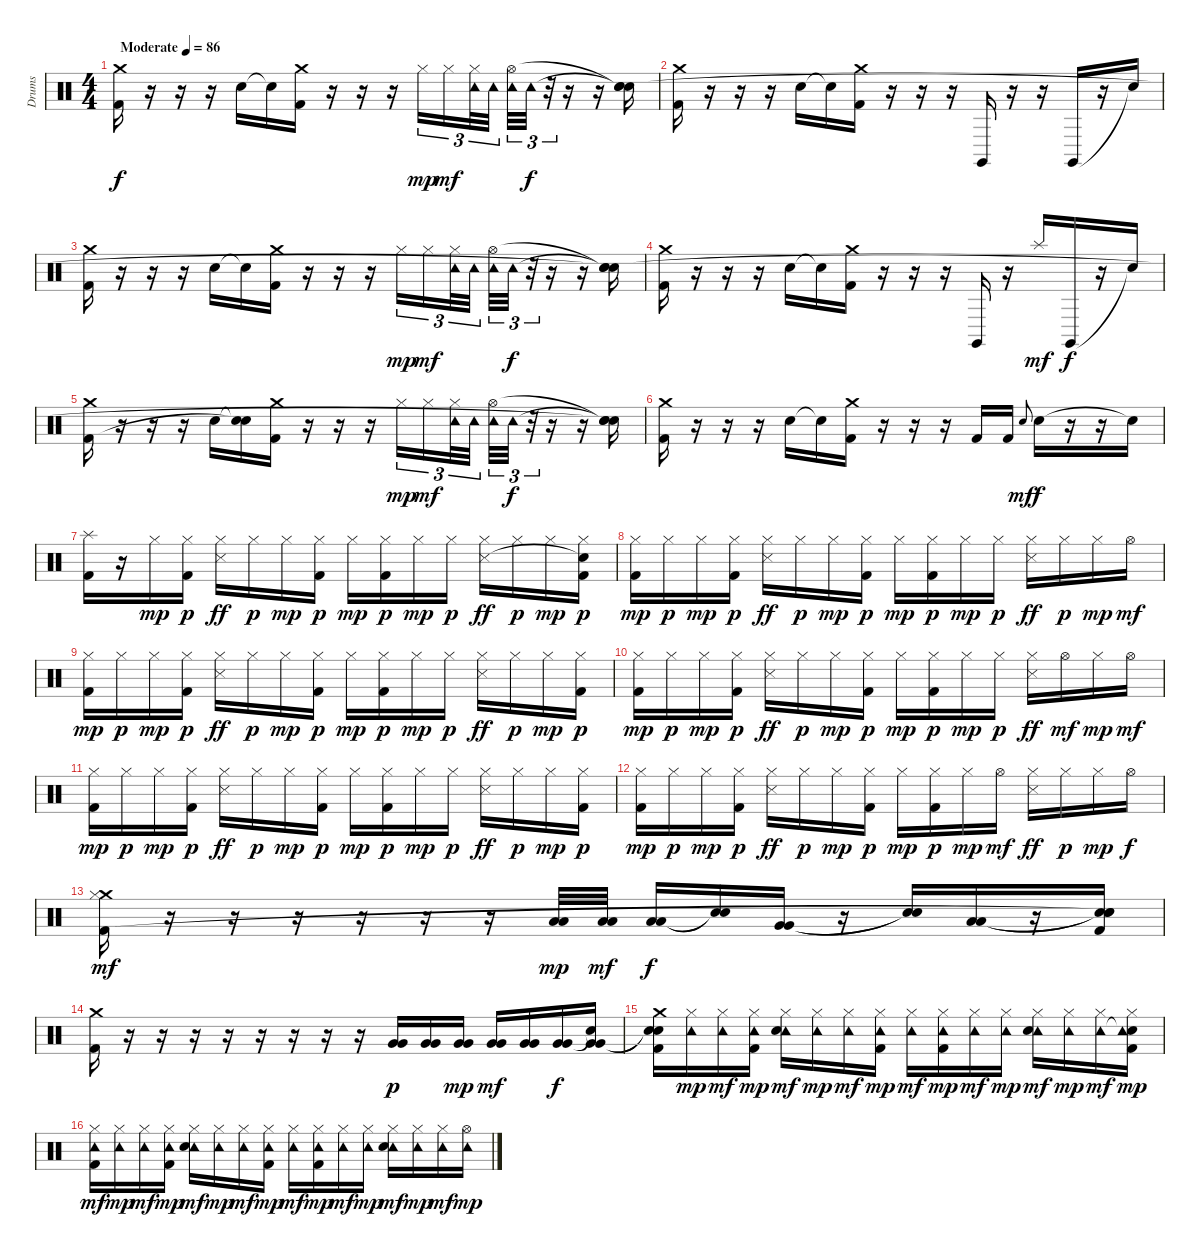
\track ("Drums" "Drums") {instrument percussion}
\staff {score}
\articulation defaults
\ts (4 4)
\tempo (86 "Moderate")
\clef neutral
\ks c
("Crash medium (hit)" "Kick (hit) 2").16{dy f} r.16 r.16 r.16 "Electric Snare (hit)".16 "Snare (hit)"{t}.16 ("Crash medium (hit)" "Kick (hit) 2").16 r.16 r.16 r.16 "Hi-Hat (closed)".16{tu (3 2) dy mp} "Hi-Hat (closed)".16{tu (3 2) dy mf} ("Tambourine (hit)" "Hi-Hat (closed)").32{tu (3 2)} "Tambourine (hit)".32{tu (3 2)} ("Tambourine (hit)" "Hi-Hat (open)").32{tu (3 2)} "Tambourine (hit)".32{tu (3 2) dy f} r.32{tu (3 2)} r.16 r.16 ("Snare (hit)"{t} "Snare (hit)"{t} "Snare (hit)").16 |
("Crash medium (hit)" "Kick (hit) 2").16 r.16 r.16 r.16 "Electric Snare (hit)".16 "Snare (hit)"{t}.16 ("Crash medium (hit)" "Kick (hit) 2").16 r.16 r.16 r.16 "Claves (hit)".16 r.16 r.16 "Claves (hit)".16 r.16 "Snare (hit)"{t}.16 |
("Crash medium (hit)" "Kick (hit) 2").16 r.16 r.16 r.16 "Electric Snare (hit)".16 "Snare (hit)"{t}.16 ("Crash medium (hit)" "Kick (hit) 2").16 r.16 r.16 r.16 "Hi-Hat (closed)".16{tu (3 2) dy mp} "Hi-Hat (closed)".16{tu (3 2) dy mf} ("Tambourine (hit)" "Hi-Hat (closed)").32{tu (3 2)} "Tambourine (hit)".32{tu (3 2)} ("Tambourine (hit)" "Hi-Hat (open)").32{tu (3 2)} "Tambourine (hit)".32{tu (3 2) dy f} r.32{tu (3 2)} r.16 r.16 ("Snare (hit)"{t} "Snare (hit)"{t} "Snare (hit)"{t}).16 |
("Crash medium (hit)" "Kick (hit) 2").16 r.16 r.16 r.16 "Electric Snare (hit)".16 "Snare (hit)"{t}.16 ("Crash medium (hit)" "Kick (hit) 2").16 r.16 r.16 r.16 "Claves (hit)".16 r.16 "Splash (hit)".16{dy mf} "Claves (hit)".16{dy f} r.16 "Snare (hit)"{t}.16 |
("Crash medium (hit)" "Kick (hit) 2").16 r.16 r.16 r.16 "Electric Snare (hit)".16 ("Snare (hit)"{t} "Snare (hit)"{t}).16 ("Crash medium (hit)" "Kick (hit) 2").16 r.16 r.16 r.16 "Hi-Hat (closed)".16{tu (3 2) dy mp} "Hi-Hat (closed)".16{tu (3 2) dy mf} ("Tambourine (hit)" "Hi-Hat (closed)").32{tu (3 2)} "Tambourine (hit)".32{tu (3 2)} ("Tambourine (hit)" "Hi-Hat (open)").32{tu (3 2)} "Tambourine (hit)".32{tu (3 2) dy f} r.32{tu (3 2)} r.16 r.16 ("Snare (hit)"{t} "Snare (hit)"{t} "Snare (hit)"{t}).16 |
("Crash medium (hit)" "Kick (hit) 2").16 r.16 r.16 r.16 "Electric Snare (hit)".16 "Snare (hit)"{t}.16 ("Crash medium (hit)" "Kick (hit) 2").16 r.16 r.16 r.16 "Kick (hit) 2".16 "Kick (hit) 2".16 "Electric Snare (hit)".8{gr onbeat dy mf} "Electric Snare (hit)".16{dy f} r.16 r.16 "Snare (hit)"{t}.16 |
("Splash (hit)" "Kick (hit) 2").16 r.16 "Hi-Hat (closed)".16{dy mp} ("Hi-Hat (closed)" "Kick (hit) 2").16{dy p} ("Hi-Hat (closed)" "Snare (side stick) 3").16{dy ff} "Hi-Hat (closed)".16{dy p} "Hi-Hat (closed)".16{dy mp} ("Hi-Hat (closed)" "Kick (hit) 2").16{dy p} "Hi-Hat (closed)".16{dy mp} ("Hi-Hat (closed)" "Kick (hit) 2").16{dy p} "Hi-Hat (closed)".16{dy mp} "Hi-Hat (closed)".16{dy p} ("Hi-Hat (closed)" "Snare (side stick) 3").16{dy ff} "Hi-Hat (closed)".16{dy p} "Hi-Hat (closed)".16{dy mp} ("Hi-Hat (closed)" "Snare (hit)"{t} "Kick (hit) 2").16{dy p} |
("Hi-Hat (closed)" "Kick (hit) 2").16{dy mp} "Hi-Hat (closed)".16{dy p} "Hi-Hat (closed)".16{dy mp} ("Hi-Hat (closed)" "Kick (hit) 2").16{dy p} ("Hi-Hat (closed)" "Snare (side stick) 3").16{dy ff} "Hi-Hat (closed)".16{dy p} "Hi-Hat (closed)".16{dy mp} ("Hi-Hat (closed)" "Kick (hit) 2").16{dy p} "Hi-Hat (closed)".16{dy mp} ("Hi-Hat (closed)" "Kick (hit) 2").16{dy p} "Hi-Hat (closed)".16{dy mp} "Hi-Hat (closed)".16{dy p} ("Hi-Hat (closed)" "Snare (side stick) 3").16{dy ff} "Hi-Hat (closed)".16{dy p} "Hi-Hat (closed)".16{dy mp} "Hi-Hat (open)".16{dy mf} |
("Hi-Hat (closed)" "Kick (hit) 2").16{dy mp} "Hi-Hat (closed)".16{dy p} "Hi-Hat (closed)".16{dy mp} ("Hi-Hat (closed)" "Kick (hit) 2").16{dy p} ("Hi-Hat (closed)" "Snare (side stick) 3").16{dy ff} "Hi-Hat (closed)".16{dy p} "Hi-Hat (closed)".16{dy mp} ("Hi-Hat (closed)" "Kick (hit) 2").16{dy p} "Hi-Hat (closed)".16{dy mp} ("Hi-Hat (closed)" "Kick (hit) 2").16{dy p} "Hi-Hat (closed)".16{dy mp} "Hi-Hat (closed)".16{dy p} ("Hi-Hat (closed)" "Snare (side stick) 3").16{dy ff} "Hi-Hat (closed)".16{dy p} "Hi-Hat (closed)".16{dy mp} ("Hi-Hat (closed)" "Kick (hit) 2").16{dy p} |
("Hi-Hat (closed)" "Kick (hit) 2").16{dy mp} "Hi-Hat (closed)".16{dy p} "Hi-Hat (closed)".16{dy mp} ("Hi-Hat (closed)" "Kick (hit) 2").16{dy p} ("Hi-Hat (closed)" "Snare (side stick) 3").16{dy ff} "Hi-Hat (closed)".16{dy p} "Hi-Hat (closed)".16{dy mp} ("Hi-Hat (closed)" "Kick (hit) 2").16{dy p} "Hi-Hat (closed)".16{dy mp} ("Hi-Hat (closed)" "Kick (hit) 2").16{dy p} "Hi-Hat (closed)".16{dy mp} "Hi-Hat (closed)".16{dy p} ("Hi-Hat (closed)" "Snare (side stick) 3").16{dy ff} "Hi-Hat (open)".16{dy mf} "Hi-Hat (closed)".16{dy mp} "Hi-Hat (open)".16{dy mf} |
("Hi-Hat (closed)" "Kick (hit) 2").16{dy mp} "Hi-Hat (closed)".16{dy p} "Hi-Hat (closed)".16{dy mp} ("Hi-Hat (closed)" "Kick (hit) 2").16{dy p} ("Hi-Hat (closed)" "Snare (side stick) 3").16{dy ff} "Hi-Hat (closed)".16{dy p} "Hi-Hat (closed)".16{dy mp} ("Hi-Hat (closed)" "Kick (hit) 2").16{dy p} "Hi-Hat (closed)".16{dy mp} ("Hi-Hat (closed)" "Kick (hit) 2").16{dy p} "Hi-Hat (closed)".16{dy mp} "Hi-Hat (closed)".16{dy p} ("Hi-Hat (closed)" "Snare (side stick) 3").16{dy ff} "Hi-Hat (closed)".16{dy p} "Hi-Hat (closed)".16{dy mp} ("Hi-Hat (closed)" "Kick (hit) 2").16{dy p} |
("Hi-Hat (closed)" "Kick (hit) 2").16{dy mp} "Hi-Hat (closed)".16{dy p} "Hi-Hat (closed)".16{dy mp} ("Hi-Hat (closed)" "Kick (hit) 2").16{dy p} ("Hi-Hat (closed)" "Snare (side stick) 3").16{dy ff} "Hi-Hat (closed)".16{dy p} "Hi-Hat (closed)".16{dy mp} ("Hi-Hat (closed)" "Kick (hit) 2").16{dy p} "Hi-Hat (closed)".16{dy mp} ("Hi-Hat (closed)" "Kick (hit) 2").16{dy p} "Hi-Hat (closed)".16{dy mp} "Hi-Hat (open)".16{dy mf} ("Hi-Hat (closed)" "Snare (side stick) 3").16{dy ff} "Hi-Hat (closed)".16{dy p} "Hi-Hat (closed)".16{dy mp} "Hi-Hat (open)".16{dy f} |
("Crash medium (hit)" "Hi-Hat (closed)" "Kick (hit) 2").16{dy mf} r.16 r.16 r.16 r.16 r.16 r.16 ("Low Tom (hit)" "Low Tom (hit)").32{dy mp} ("Low Tom (hit)" "Low Tom (hit)").32{dy mf} ("Low Tom (hit)" "Low Tom (hit)").16{dy f} ("Snare (hit)"{t} "Snare (hit)"{t}).16 ("Very Low Tom (hit)" "Very Low Tom (hit)").16 r.16 ("Snare (hit)"{t} "Snare (hit)"{t}).16 ("Low Floor Tom (hit)" "Low Floor Tom (hit)").16 r.16 ("Snare (hit)"{t} "Snare (hit)"{t} "Snare (hit)"{t} "Kick (hit) 2").16 |
("Crash medium (hit)" "Kick (hit) 2").16 r.16 r.16 r.16 r.16 r.16 r.16 r.16 r.16 ("Very Low Tom (hit)" "Very Low Tom (hit)").16{dy p} ("Very Low Tom (hit)" "Very Low Tom (hit)").16 ("Very Low Tom (hit)" "Very Low Tom (hit)").16{dy mp} ("Very Low Tom (hit)" "Very Low Tom (hit)").16{dy mf} ("Very Low Tom (hit)" "Very Low Tom (hit)").16 ("Very Low Tom (hit)" "Very Low Tom (hit)").16{dy f} ("Snare (hit)"{t} "Very Low Tom (hit)" "Very Low Tom (hit)").16 |
("Crash medium (hit)" "Snare (hit)"{t} "Snare (hit)"{t} "Kick (hit) 2").16 ("Hi-Hat (closed)" "Tambourine (hit)").16{dy mp} ("Hi-Hat (closed)" "Tambourine (hit)").16{dy mf} ("Hi-Hat (closed)" "Tambourine (hit)" "Kick (hit) 2").16{dy mp} ("Hi-Hat (closed)" "Tambourine (hit)" "Electric Snare (hit)").16{dy mf} ("Hi-Hat (closed)" "Tambourine (hit)").16{dy mp} ("Hi-Hat (closed)" "Tambourine (hit)").16{dy mf} ("Hi-Hat (closed)" "Tambourine (hit)" "Kick (hit) 2").16{dy mp} ("Hi-Hat (closed)" "Tambourine (hit)").16{dy mf} ("Hi-Hat (closed)" "Tambourine (hit)" "Kick (hit) 2").16{dy mp} ("Hi-Hat (closed)" "Tambourine (hit)").16{dy mf} ("Hi-Hat (closed)" "Tambourine (hit)").16{dy mp} ("Hi-Hat (closed)" "Tambourine (hit)" "Electric Snare (hit)").16{dy mf} ("Hi-Hat (closed)" "Tambourine (hit)").16{dy mp} ("Hi-Hat (closed)" "Tambourine (hit)").16{dy mf} ("Hi-Hat (closed)" "Snare (hit)"{t} "Tambourine (hit)" "Kick (hit) 2").16{dy mp} |
("Hi-Hat (closed)" "Tambourine (hit)" "Kick (hit) 2").16{dy mf} ("Hi-Hat (closed)" "Tambourine (hit)").16{dy mp} ("Hi-Hat (closed)" "Tambourine (hit)").16{dy mf} ("Hi-Hat (closed)" "Tambourine (hit)" "Kick (hit) 2").16{dy mp} ("Hi-Hat (closed)" "Tambourine (hit)" "Electric Snare (hit)").16{dy mf} ("Hi-Hat (closed)" "Tambourine (hit)").16{dy mp} ("Hi-Hat (closed)" "Tambourine (hit)").16{dy mf} ("Hi-Hat (closed)" "Tambourine (hit)" "Kick (hit) 2").16{dy mp} ("Hi-Hat (closed)" "Tambourine (hit)").16{dy mf} ("Hi-Hat (closed)" "Tambourine (hit)" "Kick (hit) 2").16{dy mp} ("Hi-Hat (closed)" "Tambourine (hit)").16{dy mf} ("Hi-Hat (closed)" "Tambourine (hit)").16{dy mp} ("Hi-Hat (closed)" "Tambourine (hit)" "Electric Snare (hit)").16{dy mf} ("Hi-Hat (closed)" "Tambourine (hit)").16{dy mp} ("Hi-Hat (closed)" "Tambourine (hit)").16{dy mf} ("Hi-Hat (open)" "Tambourine (hit)").16{dy mp}
